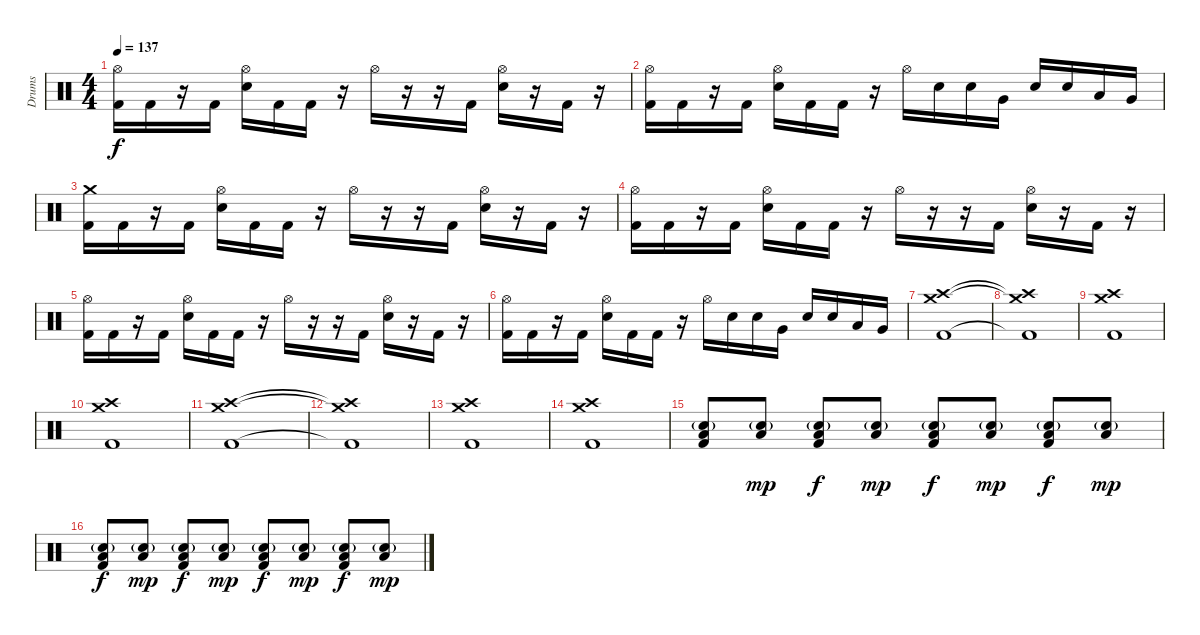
\track ("Drums" "Drums") {instrument percussion}
\staff {score}
\articulation defaults
\ts (4 4)
\tempo 137
\clef neutral
\ks c
("Hi-Hat (open)" "Kick (hit) 2").16{dy f} "Kick (hit) 2".16 r.16 "Kick (hit) 2".16 ("Hi-Hat (open)" "Electric Snare (hit)").16 "Kick (hit) 2".16 "Kick (hit) 2".16 r.16 "Hi-Hat (open)".16 r.16 r.16 "Kick (hit) 2".16 ("Hi-Hat (open)" "Electric Snare (hit)").16 r.16 "Kick (hit) 2".16 r.16 |
("Hi-Hat (open)" "Kick (hit) 2").16 "Kick (hit) 2".16 r.16 "Kick (hit) 2".16 ("Hi-Hat (open)" "Electric Snare (hit)").16 "Kick (hit) 2".16 "Kick (hit) 2".16 r.16 "Hi-Hat (open)".16 "Electric Snare (hit)".16 "Electric Snare (hit)".16 "Very Low Tom (hit)".16 "Electric Snare (hit)".16 "Electric Snare (hit)".16 "Low Tom (hit)".16 "Very Low Tom (hit)".16 |
("Crash medium (hit)" "Kick (hit) 2").16 "Kick (hit) 2".16 r.16 "Kick (hit) 2".16 ("Hi-Hat (open)" "Electric Snare (hit)").16 "Kick (hit) 2".16 "Kick (hit) 2".16 r.16 "Hi-Hat (open)".16 r.16 r.16 "Kick (hit) 2".16 ("Hi-Hat (open)" "Electric Snare (hit)").16 r.16 "Kick (hit) 2".16 r.16 |
("Hi-Hat (open)" "Kick (hit) 2").16 "Kick (hit) 2".16 r.16 "Kick (hit) 2".16 ("Hi-Hat (open)" "Electric Snare (hit)").16 "Kick (hit) 2".16 "Kick (hit) 2".16 r.16 "Hi-Hat (open)".16 r.16 r.16 "Kick (hit) 2".16 ("Hi-Hat (open)" "Electric Snare (hit)").16 r.16 "Kick (hit) 2".16 r.16 |
("Hi-Hat (open)" "Kick (hit) 2").16 "Kick (hit) 2".16 r.16 "Kick (hit) 2".16 ("Hi-Hat (open)" "Electric Snare (hit)").16 "Kick (hit) 2".16 "Kick (hit) 2".16 r.16 "Hi-Hat (open)".16 r.16 r.16 "Kick (hit) 2".16 ("Hi-Hat (open)" "Electric Snare (hit)").16 r.16 "Kick (hit) 2".16 r.16 |
("Hi-Hat (open)" "Kick (hit) 2").16 "Kick (hit) 2".16 r.16 "Kick (hit) 2".16 ("Hi-Hat (open)" "Electric Snare (hit)").16 "Kick (hit) 2".16 "Kick (hit) 2".16 r.16 "Hi-Hat (open)".16 "Electric Snare (hit)".16 "Electric Snare (hit)".16 "Very Low Tom (hit)".16 "Electric Snare (hit)".16 "Electric Snare (hit)".16 "Low Tom (hit)".16 "Very Low Tom (hit)".16 |
("Crash medium (hit)" "Crash high (hit)" "Kick (hit) 2").1 |
("Crash medium (hit)"{t} "Crash high (hit)"{t} "Kick (hit) 2"{t}).1 |
("Crash medium (hit)" "Crash high (hit)" "Kick (hit) 2").1 |
("Crash medium (hit)" "Crash high (hit)" "Kick (hit) 2").1 |
("Crash medium (hit)" "Crash high (hit)" "Kick (hit) 2").1 |
("Crash medium (hit)"{t} "Crash high (hit)"{t} "Kick (hit) 2"{t}).1 |
("Crash medium (hit)" "Crash high (hit)" "Kick (hit) 2").1 |
("Crash medium (hit)" "Crash high (hit)" "Kick (hit) 2").1 |
("Low Floor Tom (hit)" "Snare (hit) 2"{g} "Kick (hit) 2").8 ("Low Floor Tom (hit)" "Snare (hit) 2"{g}).8{dy mp} ("Low Floor Tom (hit)" "Snare (hit) 2"{g} "Kick (hit) 2").8{dy f} ("Low Floor Tom (hit)" "Snare (hit) 2"{g}).8{dy mp} ("Low Floor Tom (hit)" "Snare (hit) 2"{g} "Kick (hit) 2").8{dy f} ("Low Floor Tom (hit)" "Snare (hit) 2"{g}).8{dy mp} ("Low Floor Tom (hit)" "Snare (hit) 2"{g} "Kick (hit) 2").8{dy f} ("Low Floor Tom (hit)" "Snare (hit) 2"{g}).8{dy mp} |
("Low Floor Tom (hit)" "Snare (hit) 2"{g} "Kick (hit) 2").8{dy f} ("Low Floor Tom (hit)" "Snare (hit) 2"{g}).8{dy mp} ("Low Floor Tom (hit)" "Snare (hit) 2"{g} "Kick (hit) 2").8{dy f} ("Low Floor Tom (hit)" "Snare (hit) 2"{g}).8{dy mp} ("Low Floor Tom (hit)" "Snare (hit) 2"{g} "Kick (hit) 2").8{dy f} ("Low Floor Tom (hit)" "Snare (hit) 2"{g}).8{dy mp} ("Low Floor Tom (hit)" "Snare (hit) 2"{g} "Kick (hit) 2").8{dy f} ("Low Floor Tom (hit)" "Snare (hit) 2"{g}).8{dy mp}
